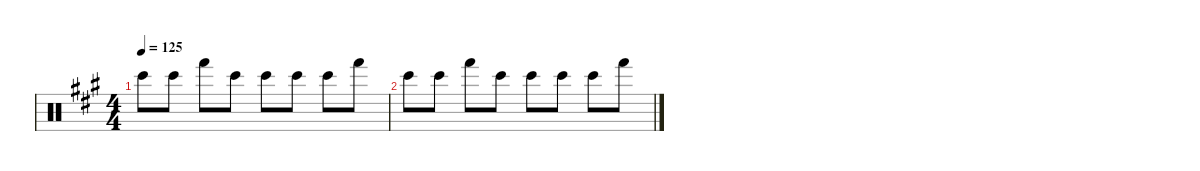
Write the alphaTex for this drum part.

\defaultSystemsLayout 4
\hideDynamics
\bracketExtendMode nobrackets
\singleTrackTrackNamePolicy hidden
\multiTrackTrackNamePolicy hidden
\otherSystemsTrackNameOrientation horizontal
\track ("Percussion" "drm.") {instrument percussion}
\staff {score}
\articulation defaults
\ts (4 4)
\tempo 125
\clef neutral
\ks a "Bongo High (hit)"{acc forcenatural}.8{dy f beam Down} "Bongo High (hit)"{acc forcenatural}.8{beam Down} "Hand (hit)"{acc forcenatural}.8{beam Down} "Bongo High (hit)"{acc forcenatural}.8{beam Down} "Bongo High (hit)"{acc forcenatural}.8{beam Down} "Bongo High (hit)"{acc forcenatural}.8{beam Down} "Bongo High (hit)"{acc forcenatural}.8{beam Down} "Hand (hit)"{acc forcenatural}.8{beam Down}
|
"Bongo High (hit)"{acc forcenatural}.8{beam Down} "Bongo High (hit)"{acc forcenatural}.8{beam Down} "Hand (hit)"{acc forcenatural}.8{beam Down} "Bongo High (hit)"{acc forcenatural}.8{beam Down} "Bongo High (hit)"{acc forcenatural}.8{beam Down} "Bongo High (hit)"{acc forcenatural}.8{beam Down} "Bongo High (hit)"{acc forcenatural}.8{beam Down} "Hand (hit)"{acc forcenatural}.8{beam Down}
